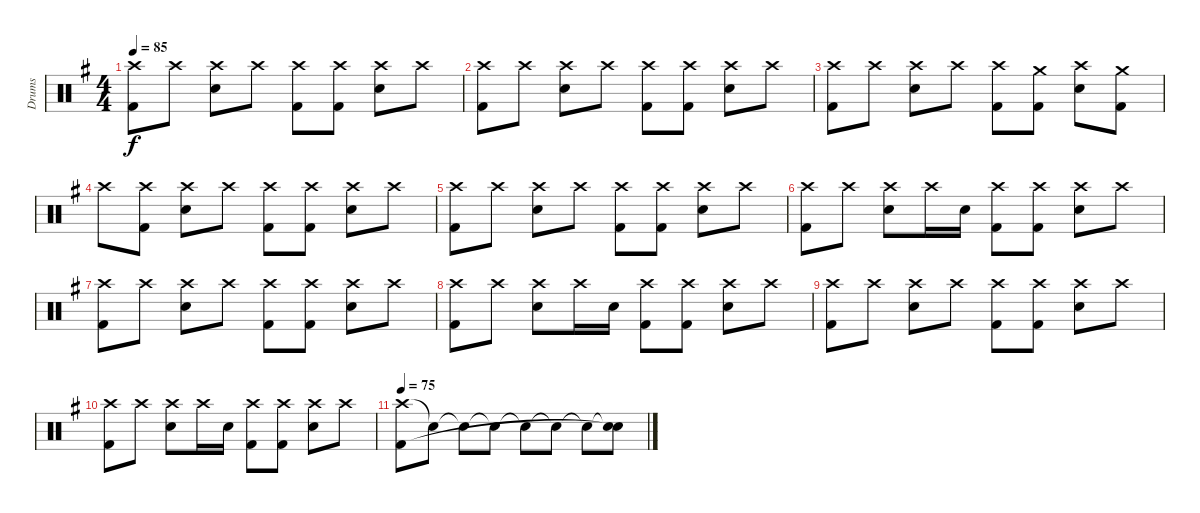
\track ("Drums" "Drums") {instrument percussion}
\staff {score}
\articulation defaults
\ts (4 4)
\tempo 85
\clef neutral
\ks g
("Crash high (hit)" "Kick (hit) 2").8{dy f} "Crash high (hit)".8 ("Crash high (hit)" "Snare (hit) 2").8 "Crash high (hit)".8 ("Crash high (hit)" "Kick (hit) 2").8 ("Crash high (hit)" "Kick (hit) 2").8 ("Crash high (hit)" "Snare (hit) 2").8 "Crash high (hit)".8 |
("Crash high (hit)" "Kick (hit) 2").8 "Crash high (hit)".8 ("Crash high (hit)" "Snare (hit) 2").8 "Crash high (hit)".8 ("Crash high (hit)" "Kick (hit) 2").8 ("Crash high (hit)" "Kick (hit) 2").8 ("Crash high (hit)" "Snare (hit) 2").8 "Crash high (hit)".8 |
("Crash high (hit)" "Kick (hit) 2").8 "Crash high (hit)".8 ("Crash high (hit)" "Snare (hit) 2").8 "Crash high (hit)".8 ("Crash high (hit)" "Kick (hit) 2").8 ("Crash medium (hit)" "Kick (hit) 2").8 ("Crash high (hit)" "Snare (hit) 2").8 ("Crash medium (hit)" "Kick (hit) 2").8 |
"Crash high (hit)".8 ("Crash high (hit)" "Kick (hit) 2").8 ("Crash high (hit)" "Snare (hit) 2").8 "Crash high (hit)".8 ("Crash high (hit)" "Kick (hit) 2").8 ("Crash high (hit)" "Kick (hit) 2").8 ("Crash high (hit)" "Snare (hit) 2").8 "Crash high (hit)".8 |
("Crash high (hit)" "Kick (hit) 2").8 "Crash high (hit)".8 ("Crash high (hit)" "Snare (hit) 2").8 "Crash high (hit)".8 ("Crash high (hit)" "Kick (hit) 2").8 ("Crash high (hit)" "Kick (hit) 2").8 ("Crash high (hit)" "Snare (hit) 2").8 "Crash high (hit)".8 |
("Crash high (hit)" "Kick (hit) 2").8 "Crash high (hit)".8 ("Crash high (hit)" "Snare (hit) 2").8 "Crash high (hit)".16 "Snare (hit) 2".16 ("Crash high (hit)" "Kick (hit) 2").8 ("Crash high (hit)" "Kick (hit) 2").8 ("Crash high (hit)" "Snare (hit) 2").8 "Crash high (hit)".8 |
("Crash high (hit)" "Kick (hit) 2").8 "Crash high (hit)".8 ("Crash high (hit)" "Snare (hit) 2").8 "Crash high (hit)".8 ("Crash high (hit)" "Kick (hit) 2").8 ("Crash high (hit)" "Kick (hit) 2").8 ("Crash high (hit)" "Snare (hit) 2").8 "Crash high (hit)".8 |
("Crash high (hit)" "Kick (hit) 2").8 "Crash high (hit)".8 ("Crash high (hit)" "Snare (hit) 2").8 "Crash high (hit)".16 "Snare (hit) 2".16 ("Crash high (hit)" "Kick (hit) 2").8 ("Crash high (hit)" "Kick (hit) 2").8 ("Crash high (hit)" "Snare (hit) 2").8 "Crash high (hit)".8 |
("Crash high (hit)" "Kick (hit) 2").8 "Crash high (hit)".8 ("Crash high (hit)" "Snare (hit) 2").8 "Crash high (hit)".8 ("Crash high (hit)" "Kick (hit) 2").8 ("Crash high (hit)" "Kick (hit) 2").8 ("Crash high (hit)" "Snare (hit) 2").8 "Crash high (hit)".8 |
("Crash high (hit)" "Kick (hit) 2").8 "Crash high (hit)".8 ("Crash high (hit)" "Snare (hit) 2").8 "Crash high (hit)".16 "Snare (hit) 2".16 ("Crash high (hit)" "Kick (hit) 2").8 ("Crash high (hit)" "Kick (hit) 2").8 ("Crash high (hit)" "Snare (hit) 2").8 "Crash high (hit)".8 |
\tempo 75
("Crash high (hit)" "Kick (hit) 2").8 "Snare (hit)"{t}.8 "Snare (hit)"{t}.8 "Snare (hit)"{t}.8 "Snare (hit)"{t}.8 "Snare (hit)"{t}.8 "Snare (hit)"{t}.8 ("Snare (hit)"{t} "Snare (hit)"{t}).8
